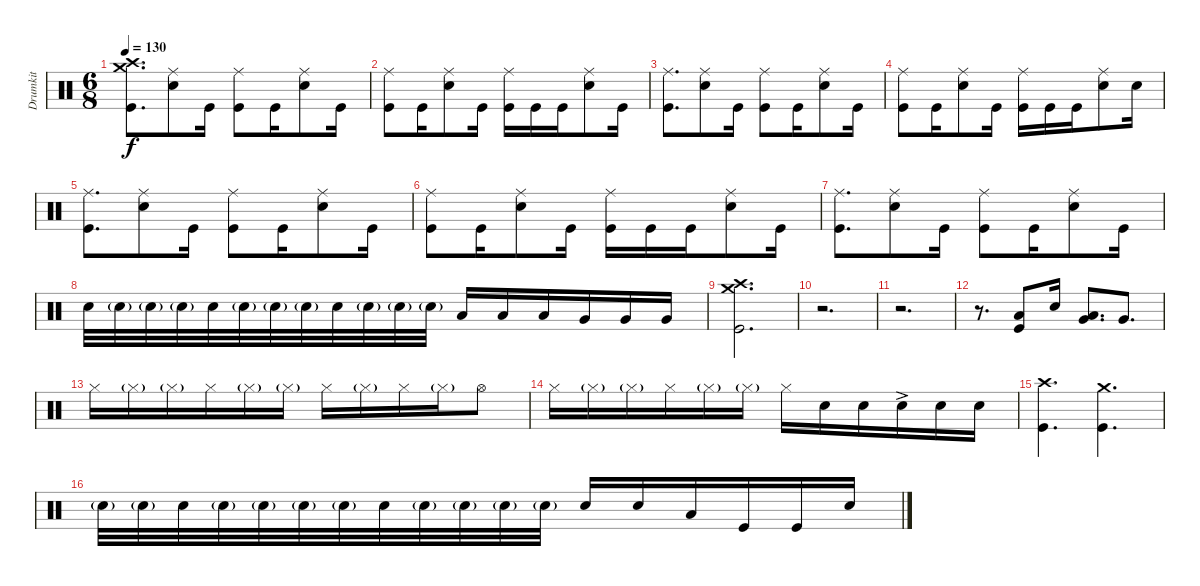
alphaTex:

\track ("Drumkit" "Drumkit") {instrument percussion}
\staff {score}
\articulation defaults
\ts (6 8)
\tempo 130
\clef neutral
\ks c
("Kick (hit)" "Crash high (hit)" "Crash medium (hit)").8{d dy f} ("Snare (hit) 2" "Ride (middle)").8 "Kick (hit)".16 ("Kick (hit)" "Ride (middle)").8 "Kick (hit)".16 ("Snare (hit) 2" "Ride (middle)").8 "Kick (hit)".16 |
("Kick (hit)" "Ride (middle)").8 "Kick (hit)".16 ("Snare (hit) 2" "Ride (middle)").8 "Kick (hit)".16 ("Kick (hit)" "Ride (middle)").16 "Kick (hit)".16 "Kick (hit)".16 ("Snare (hit) 2" "Ride (middle)").8 "Kick (hit)".16 |
("Kick (hit)" "Ride (middle)").8{d} ("Snare (hit) 2" "Ride (middle)").8 "Kick (hit)".16 ("Kick (hit)" "Ride (middle)").8 "Kick (hit)".16 ("Snare (hit) 2" "Ride (middle)").8 "Kick (hit)".16 |
("Kick (hit)" "Ride (middle)").8 "Kick (hit)".16 ("Snare (hit) 2" "Ride (middle)").8 "Kick (hit)".16 ("Kick (hit)" "Ride (middle)").16 "Kick (hit)".16 "Kick (hit)".16 ("Snare (hit) 2" "Ride (middle)").8 "Snare (hit) 2".16 |
("Kick (hit)" "Ride (middle)").8{d} ("Snare (hit) 2" "Ride (middle)").8 "Kick (hit)".16 ("Kick (hit)" "Ride (middle)").8 "Kick (hit)".16 ("Snare (hit) 2" "Ride (middle)").8 "Kick (hit)".16 |
("Kick (hit)" "Ride (middle)").8 "Kick (hit)".16 ("Snare (hit) 2" "Ride (middle)").8 "Kick (hit)".16 ("Kick (hit)" "Ride (middle)").16 "Kick (hit)".16 "Kick (hit)".16 ("Snare (hit) 2" "Ride (middle)").8 "Kick (hit)".16 |
("Kick (hit)" "Ride (middle)").8{d} ("Snare (hit) 2" "Ride (middle)").8 "Kick (hit)".16 ("Kick (hit)" "Ride (middle)").8 "Kick (hit)".16 ("Snare (hit) 2" "Ride (middle)").8 "Kick (hit)".16 |
"Snare (hit) 2".32 "Snare (hit) 2"{g}.32 "Snare (hit) 2"{g}.32 "Snare (hit) 2"{g}.32 "Snare (hit) 2".32 "Snare (hit) 2"{g}.32 "Snare (hit) 2"{g}.32 "Snare (hit) 2"{g}.32 "Snare (hit) 2".32 "Snare (hit) 2"{g}.32 "Snare (hit) 2"{g}.32 "Snare (hit) 2"{g}.32 "Low Tom (hit)".16 "Low Tom (hit)".16 "Low Tom (hit)".16 "Very Low Tom (hit)".16 "Very Low Tom (hit)".16 "Very Low Tom (hit)".16 |
("Kick (hit)" "Crash medium (hit)" "Crash high (hit)").2{d} |
r.2{d} |
r.2{d} |
r.8{d} ("Kick (hit)" "Low Floor Tom (hit)").8 "Snare (hit) 2".16 ("Low Tom (hit)" "Very Low Tom (hit)").8{d} "Very Low Tom (hit)".8{d} |
"Hi-Hat (closed)".16 "Hi-Hat (closed)"{g}.16 "Hi-Hat (closed)"{g}.16 "Hi-Hat (closed)".16 "Hi-Hat (closed)"{g}.16 "Hi-Hat (closed)"{g}.16 "Hi-Hat (closed)".16 "Hi-Hat (closed)"{g}.16 "Hi-Hat (closed)".16 "Hi-Hat (closed)"{g}.16 "Hi-Hat (open)".8 |
"Hi-Hat (closed)".16 "Hi-Hat (closed)"{g}.16 "Hi-Hat (closed)"{g}.16 "Hi-Hat (closed)".16 "Hi-Hat (closed)"{g}.16 "Hi-Hat (closed)"{g}.16 "Hi-Hat (closed)".16 "Snare (hit) 2".16 "Snare (hit) 2".16 "Snare (hit) 2"{ac}.16 "Snare (hit) 2".16 "Snare (hit) 2".16 |
("Kick (hit)" "Crash high (hit)").4{d} ("Kick (hit)" "Crash medium (hit)").4{d} |
"Snare (hit) 2"{g}.32 "Snare (hit) 2"{g}.32 "Snare (hit) 2".32 "Snare (hit) 2"{g}.32 "Snare (hit) 2"{g}.32 "Snare (hit) 2"{g}.32 "Snare (hit) 2"{g}.32 "Snare (hit) 2".32 "Snare (hit) 2"{g}.32 "Snare (hit) 2"{g}.32 "Snare (hit) 2"{g}.32 "Snare (hit) 2"{g}.32 "Snare (hit) 2".16 "Snare (hit) 2".16 "Low Tom (hit)".16 "Kick (hit)".16 "Kick (hit)".16 "Snare (hit) 2".16
